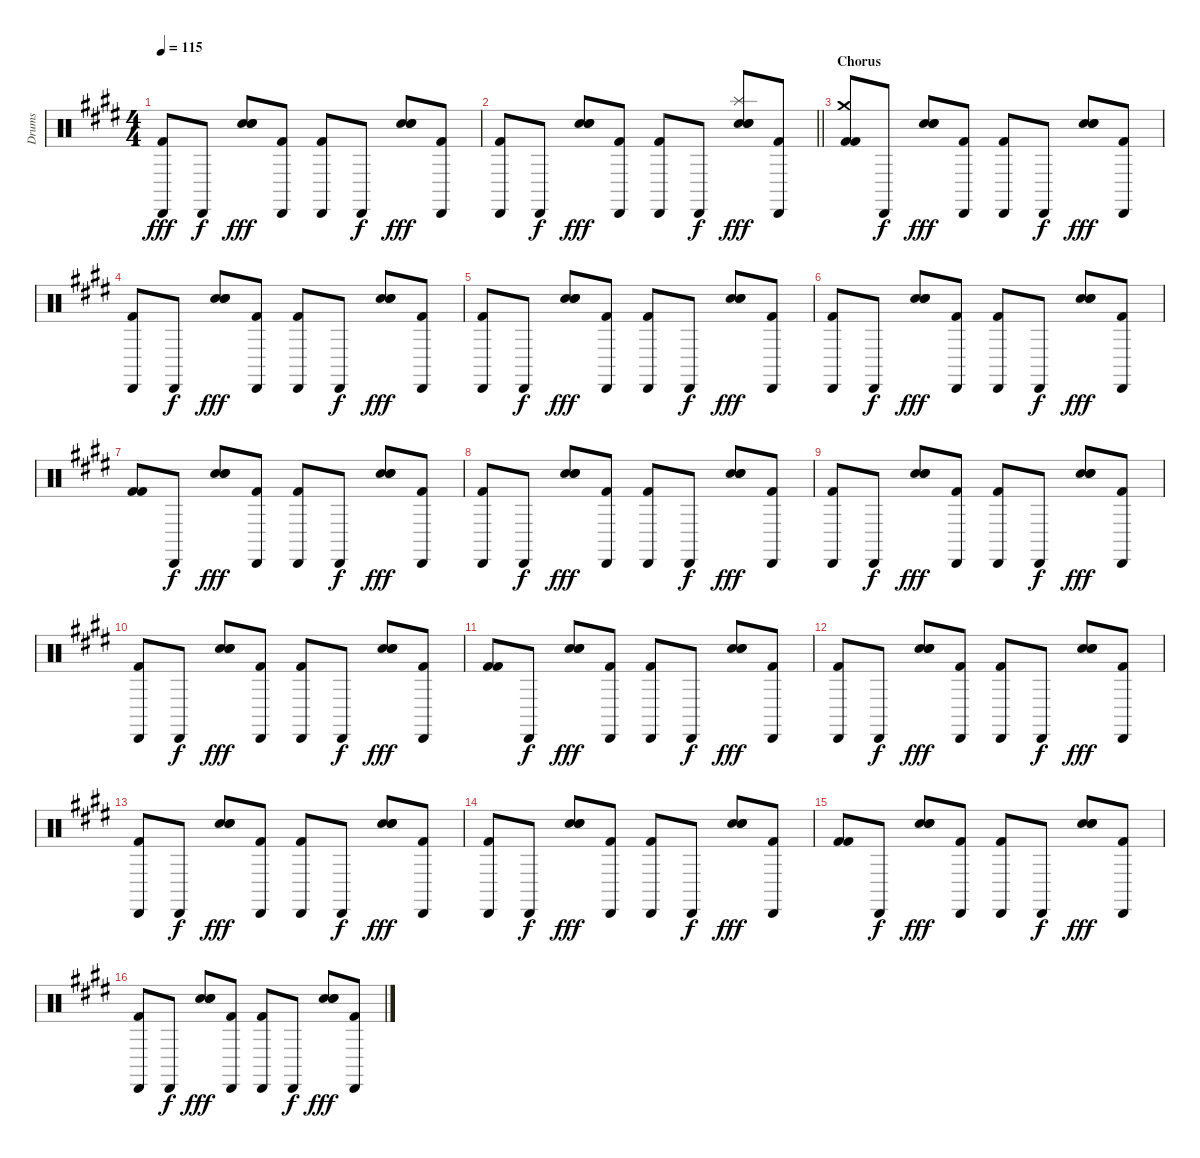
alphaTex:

\track ("Drums" "Drums") {instrument percussion}
\staff {score}
\articulation defaults
\ts (4 4)
\tempo 115
\clef neutral
\ks c#minor
("Cabasa (hit)" "Kick (hit) 2").8{dy fff} "Cabasa (hit)".8{dy f} ("Snare (hit) 2" "Hand Clap (hit)" "Hand Clap (hit)").8{bd 30 dy fff} ("Cabasa (hit)" "Kick (hit) 2").8 ("Cabasa (hit)" "Kick (hit) 2").8 "Cabasa (hit)".8{dy f} ("Snare (hit) 2" "Hand Clap (hit)" "Hand Clap (hit)").8{bd 30 dy fff} ("Cabasa (hit)" "Kick (hit) 2").8 |
\barLineRight lightlight
("Cabasa (hit)" "Kick (hit) 2").8 "Cabasa (hit)".8{dy f} ("Snare (hit) 2" "Hand Clap (hit)" "Hand Clap (hit)").8{bd 30 dy fff} ("Cabasa (hit)" "Kick (hit) 2").8 ("Cabasa (hit)" "Kick (hit) 2").8 "Cabasa (hit)".8{dy f} ("Splash (hit)" "Snare (hit) 2" "Hand Clap (hit)" "Hand Clap (hit)").8{bd 30 dy fff} ("Cabasa (hit)" "Kick (hit) 2").8 |
\section ("" "Chorus")
("Crash medium (hit)" "Kick (hit) 2" "Kick (hit) 2").8 "Cabasa (hit)".8{dy f} ("Snare (hit) 2" "Hand Clap (hit)" "Hand Clap (hit)").8{bd 30 dy fff} ("Cabasa (hit)" "Kick (hit) 2").8 ("Cabasa (hit)" "Kick (hit) 2").8 "Cabasa (hit)".8{dy f} ("Snare (hit) 2" "Hand Clap (hit)" "Hand Clap (hit)").8{bd 30 dy fff} ("Cabasa (hit)" "Kick (hit) 2").8 |
("Cabasa (hit)" "Kick (hit) 2").8 "Cabasa (hit)".8{dy f} ("Snare (hit) 2" "Hand Clap (hit)" "Hand Clap (hit)").8{bd 30 dy fff} ("Cabasa (hit)" "Kick (hit) 2").8 ("Cabasa (hit)" "Kick (hit) 2").8 "Cabasa (hit)".8{dy f} ("Snare (hit) 2" "Hand Clap (hit)" "Hand Clap (hit)").8{bd 30 dy fff} ("Cabasa (hit)" "Kick (hit) 2").8 |
("Cabasa (hit)" "Kick (hit) 2").8 "Cabasa (hit)".8{dy f} ("Snare (hit) 2" "Hand Clap (hit)" "Hand Clap (hit)").8{bd 30 dy fff} ("Cabasa (hit)" "Kick (hit) 2").8 ("Cabasa (hit)" "Kick (hit) 2").8 "Cabasa (hit)".8{dy f} ("Snare (hit) 2" "Hand Clap (hit)" "Hand Clap (hit)").8{bd 30 dy fff} ("Cabasa (hit)" "Kick (hit) 2").8 |
("Cabasa (hit)" "Kick (hit) 2").8 "Cabasa (hit)".8{dy f} ("Snare (hit) 2" "Hand Clap (hit)" "Hand Clap (hit)").8{bd 30 dy fff} ("Cabasa (hit)" "Kick (hit) 2").8 ("Cabasa (hit)" "Kick (hit) 2").8 "Cabasa (hit)".8{dy f} ("Snare (hit) 2" "Hand Clap (hit)" "Hand Clap (hit)").8{bd 30 dy fff} ("Cabasa (hit)" "Kick (hit) 2").8 |
("Kick (hit) 2" "Kick (hit) 2").8 "Cabasa (hit)".8{dy f} ("Snare (hit) 2" "Hand Clap (hit)" "Hand Clap (hit)").8{bd 30 dy fff} ("Cabasa (hit)" "Kick (hit) 2").8 ("Cabasa (hit)" "Kick (hit) 2").8 "Cabasa (hit)".8{dy f} ("Snare (hit) 2" "Hand Clap (hit)" "Hand Clap (hit)").8{bd 30 dy fff} ("Cabasa (hit)" "Kick (hit) 2").8 |
("Cabasa (hit)" "Kick (hit) 2").8 "Cabasa (hit)".8{dy f} ("Snare (hit) 2" "Hand Clap (hit)" "Hand Clap (hit)").8{bd 30 dy fff} ("Cabasa (hit)" "Kick (hit) 2").8 ("Cabasa (hit)" "Kick (hit) 2").8 "Cabasa (hit)".8{dy f} ("Snare (hit) 2" "Hand Clap (hit)" "Hand Clap (hit)").8{bd 30 dy fff} ("Cabasa (hit)" "Kick (hit) 2").8 |
("Cabasa (hit)" "Kick (hit) 2").8 "Cabasa (hit)".8{dy f} ("Snare (hit) 2" "Hand Clap (hit)" "Hand Clap (hit)").8{bd 30 dy fff} ("Cabasa (hit)" "Kick (hit) 2").8 ("Cabasa (hit)" "Kick (hit) 2").8 "Cabasa (hit)".8{dy f} ("Snare (hit) 2" "Hand Clap (hit)" "Hand Clap (hit)").8{bd 30 dy fff} ("Cabasa (hit)" "Kick (hit) 2").8 |
("Cabasa (hit)" "Kick (hit) 2").8 "Cabasa (hit)".8{dy f} ("Snare (hit) 2" "Hand Clap (hit)" "Hand Clap (hit)").8{bd 30 dy fff} ("Cabasa (hit)" "Kick (hit) 2").8 ("Cabasa (hit)" "Kick (hit) 2").8 "Cabasa (hit)".8{dy f} ("Snare (hit) 2" "Hand Clap (hit)" "Hand Clap (hit)").8{bd 30 dy fff} ("Cabasa (hit)" "Kick (hit) 2").8 |
("Kick (hit) 2" "Kick (hit) 2").8 "Cabasa (hit)".8{dy f} ("Snare (hit) 2" "Hand Clap (hit)" "Hand Clap (hit)").8{bd 30 dy fff} ("Cabasa (hit)" "Kick (hit) 2").8 ("Cabasa (hit)" "Kick (hit) 2").8 "Cabasa (hit)".8{dy f} ("Snare (hit) 2" "Hand Clap (hit)" "Hand Clap (hit)").8{bd 30 dy fff} ("Cabasa (hit)" "Kick (hit) 2").8 |
("Cabasa (hit)" "Kick (hit) 2").8 "Cabasa (hit)".8{dy f} ("Snare (hit) 2" "Hand Clap (hit)" "Hand Clap (hit)").8{bd 30 dy fff} ("Cabasa (hit)" "Kick (hit) 2").8 ("Cabasa (hit)" "Kick (hit) 2").8 "Cabasa (hit)".8{dy f} ("Snare (hit) 2" "Hand Clap (hit)" "Hand Clap (hit)").8{bd 30 dy fff} ("Cabasa (hit)" "Kick (hit) 2").8 |
("Cabasa (hit)" "Kick (hit) 2").8 "Cabasa (hit)".8{dy f} ("Snare (hit) 2" "Hand Clap (hit)" "Hand Clap (hit)").8{bd 30 dy fff} ("Cabasa (hit)" "Kick (hit) 2").8 ("Cabasa (hit)" "Kick (hit) 2").8 "Cabasa (hit)".8{dy f} ("Snare (hit) 2" "Hand Clap (hit)" "Hand Clap (hit)").8{bd 30 dy fff} ("Cabasa (hit)" "Kick (hit) 2").8 |
("Cabasa (hit)" "Kick (hit) 2").8 "Cabasa (hit)".8{dy f} ("Snare (hit) 2" "Hand Clap (hit)" "Hand Clap (hit)").8{bd 30 dy fff} ("Cabasa (hit)" "Kick (hit) 2").8 ("Cabasa (hit)" "Kick (hit) 2").8 "Cabasa (hit)".8{dy f} ("Snare (hit) 2" "Hand Clap (hit)" "Hand Clap (hit)").8{bd 30 dy fff} ("Cabasa (hit)" "Kick (hit) 2").8 |
("Kick (hit) 2" "Kick (hit) 2").8 "Cabasa (hit)".8{dy f} ("Snare (hit) 2" "Hand Clap (hit)" "Hand Clap (hit)").8{bd 30 dy fff} ("Cabasa (hit)" "Kick (hit) 2").8 ("Cabasa (hit)" "Kick (hit) 2").8 "Cabasa (hit)".8{dy f} ("Snare (hit) 2" "Hand Clap (hit)" "Hand Clap (hit)").8{bd 30 dy fff} ("Cabasa (hit)" "Kick (hit) 2").8 |
("Cabasa (hit)" "Kick (hit) 2").8 "Cabasa (hit)".8{dy f} ("Snare (hit) 2" "Hand Clap (hit)" "Hand Clap (hit)").8{bd 30 dy fff} ("Cabasa (hit)" "Kick (hit) 2").8 ("Cabasa (hit)" "Kick (hit) 2").8 "Cabasa (hit)".8{dy f} ("Snare (hit) 2" "Hand Clap (hit)" "Hand Clap (hit)").8{bd 30 dy fff} ("Cabasa (hit)" "Kick (hit) 2").8
